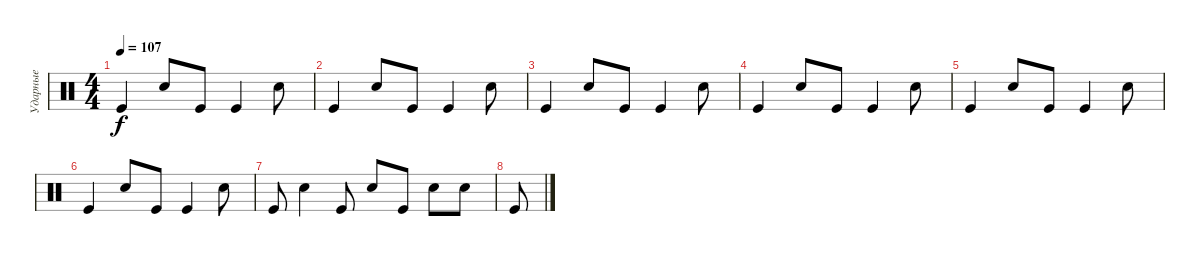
\track ("Ударные" "Ударные") {instrument percussion}
\staff {score}
\articulation defaults
\ts (4 4)
\tempo 107
\clef neutral
\ks c "Kick (hit)".4{dy f} "Snare (hit) 2".8 "Kick (hit)".8 "Kick (hit)".4 "Snare (hit) 2".8
|
"Kick (hit)".4 "Snare (hit) 2".8 "Kick (hit)".8 "Kick (hit)".4 "Snare (hit) 2".8 |
"Kick (hit)".4 "Snare (hit) 2".8 "Kick (hit)".8 "Kick (hit)".4 "Snare (hit) 2".8 |
"Kick (hit)".4 "Snare (hit) 2".8 "Kick (hit)".8 "Kick (hit)".4 "Snare (hit) 2".8 |
"Kick (hit)".4 "Snare (hit) 2".8 "Kick (hit)".8 "Kick (hit)".4 "Snare (hit) 2".8 |
"Kick (hit)".4 "Snare (hit) 2".8 "Kick (hit)".8 "Kick (hit)".4 "Snare (hit) 2".8 |
"Kick (hit)".8 "Snare (hit) 2".4 "Kick (hit)".8 "Snare (hit) 2".8 "Kick (hit)".8 "Snare (hit) 2".8 "Snare (hit) 2".8 |
"Kick (hit)".8
